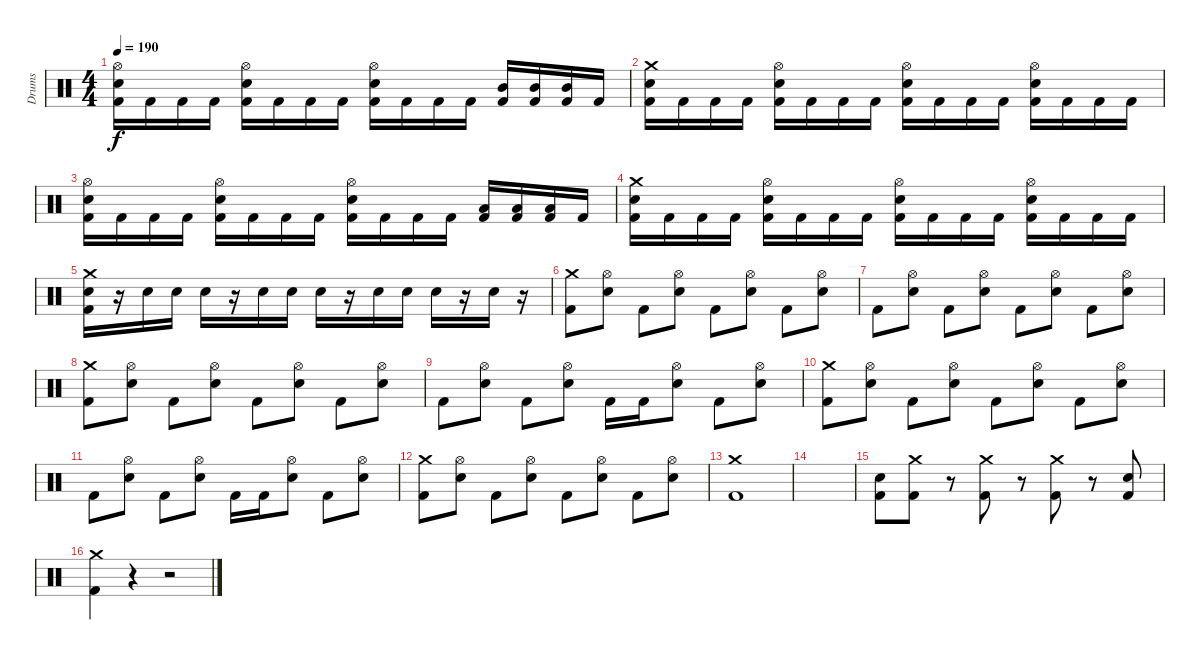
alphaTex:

\track ("Drums" "Drums") {instrument percussion}
\staff {score}
\articulation defaults
\ts (4 4)
\tempo 190
\clef neutral
\ks c
("Kick (hit) 2" "Snare (hit) 2" "Hi-Hat (open)").16{dy f} "Kick (hit) 2".16 "Kick (hit) 2".16 "Kick (hit) 2".16 ("Kick (hit) 2" "Snare (hit) 2" "Hi-Hat (open)").16 "Kick (hit) 2".16 "Kick (hit) 2".16 "Kick (hit) 2".16 ("Kick (hit) 2" "Snare (hit) 2" "Hi-Hat (open)").16 "Kick (hit) 2".16 "Kick (hit) 2".16 "Kick (hit) 2".16 ("Kick (hit) 2" "Mid Tom (hit)").16 ("Kick (hit) 2" "Mid Tom (hit)").16 ("Kick (hit) 2" "Mid Tom (hit)").16 "Kick (hit) 2".16 |
("Kick (hit) 2" "Snare (hit) 2" "Crash medium (hit)").16 "Kick (hit) 2".16 "Kick (hit) 2".16 "Kick (hit) 2".16 ("Kick (hit) 2" "Snare (hit) 2" "Hi-Hat (open)").16 "Kick (hit) 2".16 "Kick (hit) 2".16 "Kick (hit) 2".16 ("Kick (hit) 2" "Snare (hit) 2" "Hi-Hat (open)").16 "Kick (hit) 2".16 "Kick (hit) 2".16 "Kick (hit) 2".16 ("Kick (hit) 2" "Snare (hit) 2" "Hi-Hat (open)").16 "Kick (hit) 2".16 "Kick (hit) 2".16 "Kick (hit) 2".16 |
("Kick (hit) 2" "Snare (hit) 2" "Hi-Hat (open)").16 "Kick (hit) 2".16 "Kick (hit) 2".16 "Kick (hit) 2".16 ("Kick (hit) 2" "Snare (hit) 2" "Hi-Hat (open)").16 "Kick (hit) 2".16 "Kick (hit) 2".16 "Kick (hit) 2".16 ("Kick (hit) 2" "Snare (hit) 2" "Hi-Hat (open)").16 "Kick (hit) 2".16 "Kick (hit) 2".16 "Kick (hit) 2".16 ("Kick (hit) 2" "Low Tom (hit)").16 ("Kick (hit) 2" "Low Tom (hit)").16 ("Kick (hit) 2" "Low Tom (hit)").16 "Kick (hit) 2".16 |
("Kick (hit) 2" "Snare (hit) 2" "Crash medium (hit)").16 "Kick (hit) 2".16 "Kick (hit) 2".16 "Kick (hit) 2".16 ("Kick (hit) 2" "Snare (hit) 2" "Hi-Hat (open)").16 "Kick (hit) 2".16 "Kick (hit) 2".16 "Kick (hit) 2".16 ("Kick (hit) 2" "Snare (hit) 2" "Hi-Hat (open)").16 "Kick (hit) 2".16 "Kick (hit) 2".16 "Kick (hit) 2".16 ("Kick (hit) 2" "Snare (hit) 2" "Hi-Hat (open)").16 "Kick (hit) 2".16 "Kick (hit) 2".16 "Kick (hit) 2".16 |
("Kick (hit) 2" "Snare (hit) 2" "Crash medium (hit)").16 r.16 "Snare (hit) 2".16 "Snare (hit) 2".16 "Snare (hit) 2".16 r.16 "Snare (hit) 2".16 "Snare (hit) 2".16 "Snare (hit) 2".16 r.16 "Snare (hit) 2".16 "Snare (hit) 2".16 "Snare (hit) 2".16 r.16 "Snare (hit) 2".16 r.16 |
("Kick (hit) 2" "Crash medium (hit)").8 ("Snare (hit) 2" "Hi-Hat (open)").8 "Kick (hit) 2".8 ("Snare (hit) 2" "Hi-Hat (open)").8 "Kick (hit) 2".8 ("Snare (hit) 2" "Hi-Hat (open)").8 "Kick (hit) 2".8 ("Snare (hit) 2" "Hi-Hat (open)").8 |
"Kick (hit) 2".8 ("Snare (hit) 2" "Hi-Hat (open)").8 "Kick (hit) 2".8 ("Snare (hit) 2" "Hi-Hat (open)").8 "Kick (hit) 2".8 ("Snare (hit) 2" "Hi-Hat (open)").8 "Kick (hit) 2".8 ("Snare (hit) 2" "Hi-Hat (open)").8 |
("Kick (hit) 2" "Crash medium (hit)").8 ("Snare (hit) 2" "Hi-Hat (open)").8 "Kick (hit) 2".8 ("Snare (hit) 2" "Hi-Hat (open)").8 "Kick (hit) 2".8 ("Snare (hit) 2" "Hi-Hat (open)").8 "Kick (hit) 2".8 ("Snare (hit) 2" "Hi-Hat (open)").8 |
"Kick (hit) 2".8 ("Snare (hit) 2" "Hi-Hat (open)").8 "Kick (hit) 2".8 ("Snare (hit) 2" "Hi-Hat (open)").8 "Kick (hit) 2".16 "Kick (hit) 2".16 ("Snare (hit) 2" "Hi-Hat (open)").8 "Kick (hit) 2".8 ("Snare (hit) 2" "Hi-Hat (open)").8 |
("Kick (hit) 2" "Crash medium (hit)").8 ("Snare (hit) 2" "Hi-Hat (open)").8 "Kick (hit) 2".8 ("Snare (hit) 2" "Hi-Hat (open)").8 "Kick (hit) 2".8 ("Snare (hit) 2" "Hi-Hat (open)").8 "Kick (hit) 2".8 ("Snare (hit) 2" "Hi-Hat (open)").8 |
"Kick (hit) 2".8 ("Snare (hit) 2" "Hi-Hat (open)").8 "Kick (hit) 2".8 ("Snare (hit) 2" "Hi-Hat (open)").8 "Kick (hit) 2".16 "Kick (hit) 2".16 ("Snare (hit) 2" "Hi-Hat (open)").8 "Kick (hit) 2".8 ("Snare (hit) 2" "Hi-Hat (open)").8 |
("Kick (hit) 2" "Crash medium (hit)").8 ("Snare (hit) 2" "Hi-Hat (open)").8 "Kick (hit) 2".8 ("Snare (hit) 2" "Hi-Hat (open)").8 "Kick (hit) 2".8 ("Snare (hit) 2" "Hi-Hat (open)").8 "Kick (hit) 2".8 ("Snare (hit) 2" "Hi-Hat (open)").8 |
("Kick (hit) 2" "Crash medium (hit)").1 |
|
("Kick (hit) 2" "Snare (hit) 2").8 ("Kick (hit) 2" "Crash medium (hit)").8 r.8 ("Kick (hit) 2" "Crash medium (hit)").8 r.8 ("Kick (hit) 2" "Crash medium (hit)").8 r.8 ("Kick (hit) 2" "Snare (hit) 2").8 |
("Kick (hit) 2" "Crash medium (hit)").4 r.4 r.2
